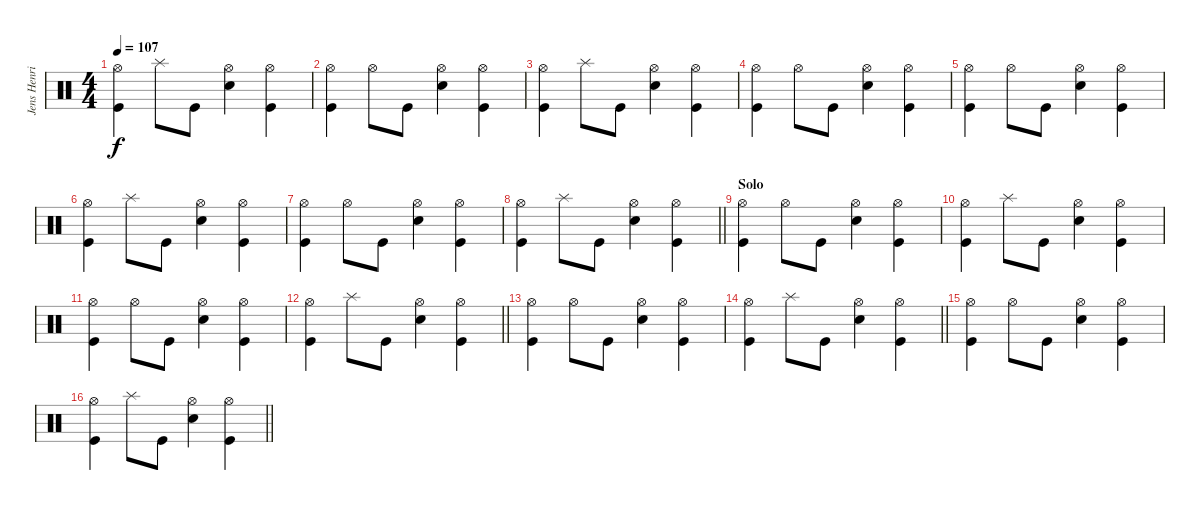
\track ("Jens Henriksson" "Jens Henri") {instrument percussion}
\staff {score}
\articulation defaults
\ts (4 4)
\tempo 107
\clef neutral
\ks aminor
("Hi-Hat (open)" "Kick (hit)").4{dy f} "Splash (hit)".8 "Kick (hit)".8 ("Hi-Hat (open)" "Snare (hit) 2").4 ("Hi-Hat (open)" "Kick (hit)").4 |
("Hi-Hat (open)" "Kick (hit)").4 "Hi-Hat (open)".8 "Kick (hit)".8 ("Hi-Hat (open)" "Snare (hit) 2").4 ("Hi-Hat (open)" "Kick (hit)").4 |
("Hi-Hat (open)" "Kick (hit)").4 "Splash (hit)".8 "Kick (hit)".8 ("Hi-Hat (open)" "Snare (hit) 2").4 ("Hi-Hat (open)" "Kick (hit)").4 |
("Hi-Hat (open)" "Kick (hit)").4 "Hi-Hat (open)".8 "Kick (hit)".8 ("Hi-Hat (open)" "Snare (hit) 2").4 ("Hi-Hat (open)" "Kick (hit)").4 |
("Hi-Hat (open)" "Kick (hit)").4 "Hi-Hat (open)".8 "Kick (hit)".8 ("Hi-Hat (open)" "Snare (hit) 2").4 ("Hi-Hat (open)" "Kick (hit)").4 |
("Hi-Hat (open)" "Kick (hit)").4 "Splash (hit)".8 "Kick (hit)".8 ("Hi-Hat (open)" "Snare (hit) 2").4 ("Hi-Hat (open)" "Kick (hit)").4 |
("Hi-Hat (open)" "Kick (hit)").4 "Hi-Hat (open)".8 "Kick (hit)".8 ("Hi-Hat (open)" "Snare (hit) 2").4 ("Hi-Hat (open)" "Kick (hit)").4 |
\barLineRight lightlight
("Hi-Hat (open)" "Kick (hit)").4 "Splash (hit)".8 "Kick (hit)".8 ("Hi-Hat (open)" "Snare (hit) 2").4 ("Hi-Hat (open)" "Kick (hit)").4 |
\section ("" "Solo")
("Hi-Hat (open)" "Kick (hit)").4 "Hi-Hat (open)".8 "Kick (hit)".8 ("Hi-Hat (open)" "Snare (hit) 2").4 ("Hi-Hat (open)" "Kick (hit)").4 |
("Hi-Hat (open)" "Kick (hit)").4 "Splash (hit)".8 "Kick (hit)".8 ("Hi-Hat (open)" "Snare (hit) 2").4 ("Hi-Hat (open)" "Kick (hit)").4 |
("Hi-Hat (open)" "Kick (hit)").4 "Hi-Hat (open)".8 "Kick (hit)".8 ("Hi-Hat (open)" "Snare (hit) 2").4 ("Hi-Hat (open)" "Kick (hit)").4 |
\barLineRight lightlight
("Hi-Hat (open)" "Kick (hit)").4 "Splash (hit)".8 "Kick (hit)".8 ("Hi-Hat (open)" "Snare (hit) 2").4 ("Hi-Hat (open)" "Kick (hit)").4 |
("Hi-Hat (open)" "Kick (hit)").4 "Hi-Hat (open)".8 "Kick (hit)".8 ("Hi-Hat (open)" "Snare (hit) 2").4 ("Hi-Hat (open)" "Kick (hit)").4 |
\barLineRight lightlight
("Hi-Hat (open)" "Kick (hit)").4 "Splash (hit)".8 "Kick (hit)".8 ("Hi-Hat (open)" "Snare (hit) 2").4 ("Hi-Hat (open)" "Kick (hit)").4 |
("Hi-Hat (open)" "Kick (hit)").4 "Hi-Hat (open)".8 "Kick (hit)".8 ("Hi-Hat (open)" "Snare (hit) 2").4 ("Hi-Hat (open)" "Kick (hit)").4 |
\barLineRight lightlight
("Hi-Hat (open)" "Kick (hit)").4 "Splash (hit)".8 "Kick (hit)".8 ("Hi-Hat (open)" "Snare (hit) 2").4 ("Hi-Hat (open)" "Kick (hit)").4
